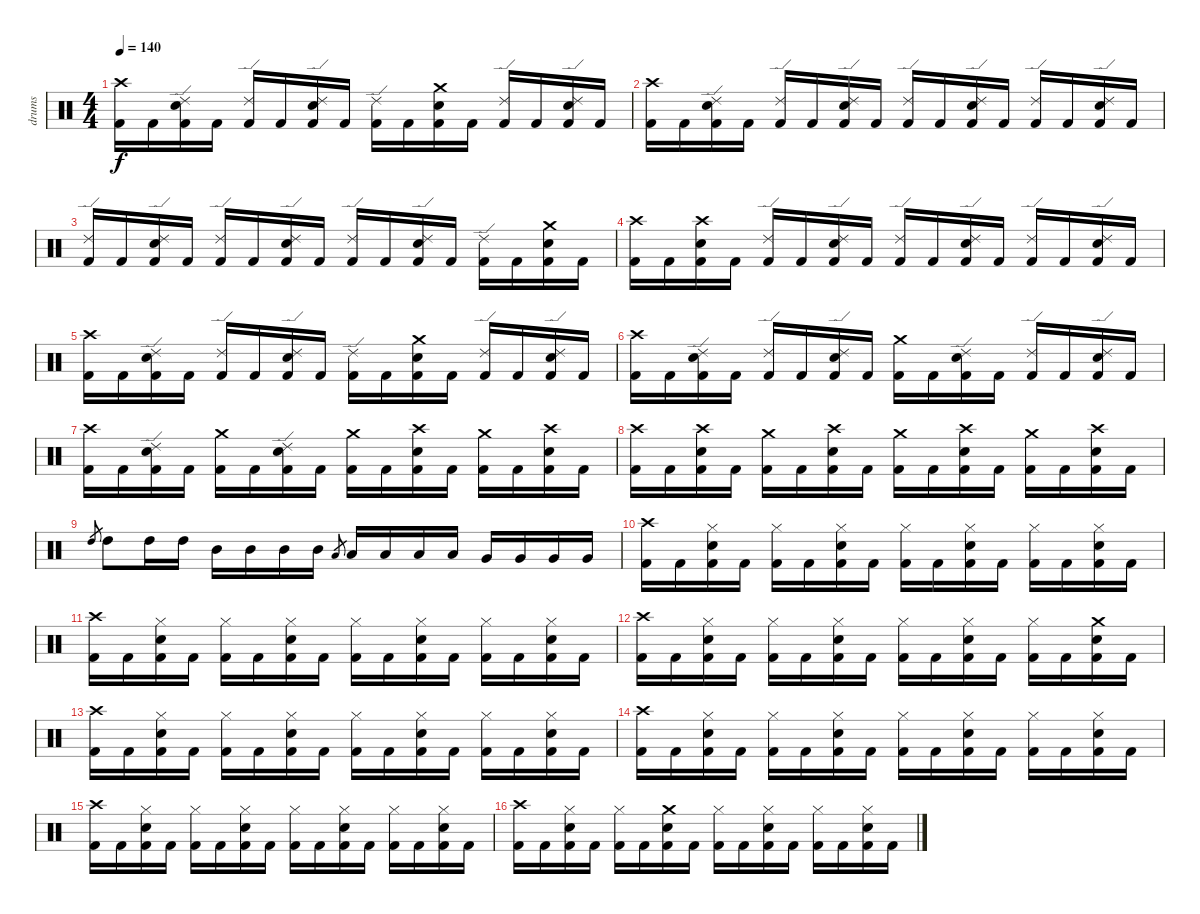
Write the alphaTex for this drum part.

\track ("drums" "drums") {instrument percussion}
\staff {score}
\articulation defaults
\ts (4 4)
\tempo 140
\clef neutral
\ks c
("Crash high (hit)" "Kick (hit) 2").16{dy f} "Kick (hit) 2".16 ("Ride (edge) 2" "Electric Snare (hit)" "Kick (hit) 2").16 "Kick (hit) 2".16 ("Ride (edge) 2" "Kick (hit) 2").16 "Kick (hit) 2".16 ("Ride (edge) 2" "Electric Snare (hit)" "Kick (hit) 2").16 "Kick (hit) 2".16 ("Ride (edge) 2" "Kick (hit) 2").16 "Kick (hit) 2".16 ("Crash medium (hit)" "Electric Snare (hit)" "Kick (hit) 2").16 "Kick (hit) 2".16 ("Ride (edge) 2" "Kick (hit) 2").16 "Kick (hit) 2".16 ("Ride (edge) 2" "Electric Snare (hit)" "Kick (hit) 2").16 "Kick (hit) 2".16 |
("Crash high (hit)" "Kick (hit) 2").16 "Kick (hit) 2".16 ("Ride (edge) 2" "Electric Snare (hit)" "Kick (hit) 2").16 "Kick (hit) 2".16 ("Ride (edge) 2" "Kick (hit) 2").16 "Kick (hit) 2".16 ("Ride (edge) 2" "Electric Snare (hit)" "Kick (hit) 2").16 "Kick (hit) 2".16 ("Ride (edge) 2" "Kick (hit) 2").16 "Kick (hit) 2".16 ("Ride (edge) 2" "Electric Snare (hit)" "Kick (hit) 2").16 "Kick (hit) 2".16 ("Ride (edge) 2" "Kick (hit) 2").16 "Kick (hit) 2".16 ("Ride (edge) 2" "Electric Snare (hit)" "Kick (hit) 2").16 "Kick (hit) 2".16 |
("Ride (edge) 2" "Kick (hit) 2").16 "Kick (hit) 2".16 ("Ride (edge) 2" "Electric Snare (hit)" "Kick (hit) 2").16 "Kick (hit) 2".16 ("Ride (edge) 2" "Kick (hit) 2").16 "Kick (hit) 2".16 ("Ride (edge) 2" "Electric Snare (hit)" "Kick (hit) 2").16 "Kick (hit) 2".16 ("Ride (edge) 2" "Kick (hit) 2").16 "Kick (hit) 2".16 ("Ride (edge) 2" "Electric Snare (hit)" "Kick (hit) 2").16 "Kick (hit) 2".16 ("Ride (edge) 2" "Kick (hit) 2").16 "Kick (hit) 2".16 ("Crash medium (hit)" "Electric Snare (hit)" "Kick (hit) 2").16 "Kick (hit) 2".16 |
("Crash high (hit)" "Kick (hit) 2").16 "Kick (hit) 2".16 ("Crash high (hit)" "Electric Snare (hit)" "Kick (hit) 2").16 "Kick (hit) 2".16 ("Ride (edge) 2" "Kick (hit) 2").16 "Kick (hit) 2".16 ("Ride (edge) 2" "Electric Snare (hit)" "Kick (hit) 2").16 "Kick (hit) 2".16 ("Ride (edge) 2" "Kick (hit) 2").16 "Kick (hit) 2".16 ("Ride (edge) 2" "Electric Snare (hit)" "Kick (hit) 2").16 "Kick (hit) 2".16 ("Ride (edge) 2" "Kick (hit) 2").16 "Kick (hit) 2".16 ("Ride (edge) 2" "Electric Snare (hit)" "Kick (hit) 2").16 "Kick (hit) 2".16 |
("Crash high (hit)" "Kick (hit) 2").16 "Kick (hit) 2".16 ("Ride (edge) 2" "Electric Snare (hit)" "Kick (hit) 2").16 "Kick (hit) 2".16 ("Ride (edge) 2" "Kick (hit) 2").16 "Kick (hit) 2".16 ("Ride (edge) 2" "Electric Snare (hit)" "Kick (hit) 2").16 "Kick (hit) 2".16 ("Ride (edge) 2" "Kick (hit) 2").16 "Kick (hit) 2".16 ("Crash medium (hit)" "Electric Snare (hit)" "Kick (hit) 2").16 "Kick (hit) 2".16 ("Ride (edge) 2" "Kick (hit) 2").16 "Kick (hit) 2".16 ("Ride (edge) 2" "Electric Snare (hit)" "Kick (hit) 2").16 "Kick (hit) 2".16 |
("Crash high (hit)" "Kick (hit) 2").16 "Kick (hit) 2".16 ("Ride (edge) 2" "Electric Snare (hit)" "Kick (hit) 2").16 "Kick (hit) 2".16 ("Ride (edge) 2" "Kick (hit) 2").16 "Kick (hit) 2".16 ("Ride (edge) 2" "Electric Snare (hit)" "Kick (hit) 2").16 "Kick (hit) 2".16 ("Crash medium (hit)" "Kick (hit) 2").16 "Kick (hit) 2".16 ("Ride (edge) 2" "Electric Snare (hit)" "Kick (hit) 2").16 "Kick (hit) 2".16 ("Ride (edge) 2" "Kick (hit) 2").16 "Kick (hit) 2".16 ("Ride (edge) 2" "Electric Snare (hit)" "Kick (hit) 2").16 "Kick (hit) 2".16 |
("Crash high (hit)" "Kick (hit) 2").16 "Kick (hit) 2".16 ("Ride (edge) 2" "Electric Snare (hit)" "Kick (hit) 2").16 "Kick (hit) 2".16 ("Crash medium (hit)" "Kick (hit) 2").16 "Kick (hit) 2".16 ("Ride (edge) 2" "Electric Snare (hit)" "Kick (hit) 2").16 "Kick (hit) 2".16 ("Crash medium (hit)" "Kick (hit) 2").16 "Kick (hit) 2".16 ("Crash high (hit)" "Electric Snare (hit)" "Kick (hit) 2").16 "Kick (hit) 2".16 ("Crash medium (hit)" "Kick (hit) 2").16 "Kick (hit) 2".16 ("Crash high (hit)" "Electric Snare (hit)" "Kick (hit) 2").16 "Kick (hit) 2".16 |
("Crash high (hit)" "Kick (hit) 2").16 "Kick (hit) 2".16 ("Crash high (hit)" "Electric Snare (hit)" "Kick (hit) 2").16 "Kick (hit) 2".16 ("Crash medium (hit)" "Kick (hit) 2").16 "Kick (hit) 2".16 ("Crash high (hit)" "Electric Snare (hit)" "Kick (hit) 2").16 "Kick (hit) 2".16 ("Crash medium (hit)" "Kick (hit) 2").16 "Kick (hit) 2".16 ("Crash high (hit)" "Electric Snare (hit)" "Kick (hit) 2").16 "Kick (hit) 2".16 ("Crash medium (hit)" "Kick (hit) 2").16 "Kick (hit) 2".16 ("Crash high (hit)" "Electric Snare (hit)" "Kick (hit) 2").16 "Kick (hit) 2".16 |
"High Tom (hit)".8{gr} "High Tom (hit)".8 "High Tom (hit)".16 "High Tom (hit)".16 "Mid Tom (hit)".16 "Mid Tom (hit)".16 "Mid Tom (hit)".16 "Mid Tom (hit)".16 "Low Tom (hit)".8{gr} "Low Tom (hit)".16 "Low Tom (hit)".16 "Low Tom (hit)".16 "Low Tom (hit)".16 "Very Low Tom (hit)".16 "Very Low Tom (hit)".16 "Very Low Tom (hit)".16 "Very Low Tom (hit)".16 |
("Crash high (hit)" "Kick (hit) 2").16 "Kick (hit) 2".16 ("Hi-Hat (closed)" "Electric Snare (hit)" "Kick (hit) 2").16 "Kick (hit) 2".16 ("Hi-Hat (closed)" "Kick (hit) 2").16 "Kick (hit) 2".16 ("Hi-Hat (closed)" "Electric Snare (hit)" "Kick (hit) 2").16 "Kick (hit) 2".16 ("Hi-Hat (closed)" "Kick (hit) 2").16 "Kick (hit) 2".16 ("Hi-Hat (closed)" "Electric Snare (hit)" "Kick (hit) 2").16 "Kick (hit) 2".16 ("Hi-Hat (closed)" "Kick (hit) 2").16 "Kick (hit) 2".16 ("Hi-Hat (closed)" "Electric Snare (hit)" "Kick (hit) 2").16 "Kick (hit) 2".16 |
("Crash high (hit)" "Kick (hit) 2").16 "Kick (hit) 2".16 ("Hi-Hat (closed)" "Electric Snare (hit)" "Kick (hit) 2").16 "Kick (hit) 2".16 ("Hi-Hat (closed)" "Kick (hit) 2").16 "Kick (hit) 2".16 ("Hi-Hat (closed)" "Electric Snare (hit)" "Kick (hit) 2").16 "Kick (hit) 2".16 ("Hi-Hat (closed)" "Kick (hit) 2").16 "Kick (hit) 2".16 ("Hi-Hat (closed)" "Electric Snare (hit)" "Kick (hit) 2").16 "Kick (hit) 2".16 ("Hi-Hat (closed)" "Kick (hit) 2").16 "Kick (hit) 2".16 ("Hi-Hat (closed)" "Electric Snare (hit)" "Kick (hit) 2").16 "Kick (hit) 2".16 |
("Crash high (hit)" "Kick (hit) 2").16 "Kick (hit) 2".16 ("Hi-Hat (closed)" "Electric Snare (hit)" "Kick (hit) 2").16 "Kick (hit) 2".16 ("Hi-Hat (closed)" "Kick (hit) 2").16 "Kick (hit) 2".16 ("Hi-Hat (closed)" "Electric Snare (hit)" "Kick (hit) 2").16 "Kick (hit) 2".16 ("Hi-Hat (closed)" "Kick (hit) 2").16 "Kick (hit) 2".16 ("Hi-Hat (closed)" "Electric Snare (hit)" "Kick (hit) 2").16 "Kick (hit) 2".16 ("Hi-Hat (closed)" "Kick (hit) 2").16 "Kick (hit) 2".16 ("Crash medium (hit)" "Electric Snare (hit)" "Kick (hit) 2").16 "Kick (hit) 2".16 |
("Crash high (hit)" "Kick (hit) 2").16 "Kick (hit) 2".16 ("Hi-Hat (closed)" "Electric Snare (hit)" "Kick (hit) 2").16 "Kick (hit) 2".16 ("Hi-Hat (closed)" "Kick (hit) 2").16 "Kick (hit) 2".16 ("Hi-Hat (closed)" "Electric Snare (hit)" "Kick (hit) 2").16 "Kick (hit) 2".16 ("Hi-Hat (closed)" "Kick (hit) 2").16 "Kick (hit) 2".16 ("Hi-Hat (closed)" "Electric Snare (hit)" "Kick (hit) 2").16 "Kick (hit) 2".16 ("Hi-Hat (closed)" "Kick (hit) 2").16 "Kick (hit) 2".16 ("Hi-Hat (closed)" "Electric Snare (hit)" "Kick (hit) 2").16 "Kick (hit) 2".16 |
("Crash high (hit)" "Kick (hit) 2").16 "Kick (hit) 2".16 ("Hi-Hat (closed)" "Electric Snare (hit)" "Kick (hit) 2").16 "Kick (hit) 2".16 ("Hi-Hat (closed)" "Kick (hit) 2").16 "Kick (hit) 2".16 ("Hi-Hat (closed)" "Electric Snare (hit)" "Kick (hit) 2").16 "Kick (hit) 2".16 ("Hi-Hat (closed)" "Kick (hit) 2").16 "Kick (hit) 2".16 ("Hi-Hat (closed)" "Electric Snare (hit)" "Kick (hit) 2").16 "Kick (hit) 2".16 ("Hi-Hat (closed)" "Kick (hit) 2").16 "Kick (hit) 2".16 ("Hi-Hat (closed)" "Electric Snare (hit)" "Kick (hit) 2").16 "Kick (hit) 2".16 |
("Crash high (hit)" "Kick (hit) 2").16 "Kick (hit) 2".16 ("Hi-Hat (closed)" "Electric Snare (hit)" "Kick (hit) 2").16 "Kick (hit) 2".16 ("Hi-Hat (closed)" "Kick (hit) 2").16 "Kick (hit) 2".16 ("Hi-Hat (closed)" "Electric Snare (hit)" "Kick (hit) 2").16 "Kick (hit) 2".16 ("Hi-Hat (closed)" "Kick (hit) 2").16 "Kick (hit) 2".16 ("Hi-Hat (closed)" "Electric Snare (hit)" "Kick (hit) 2").16 "Kick (hit) 2".16 ("Hi-Hat (closed)" "Kick (hit) 2").16 "Kick (hit) 2".16 ("Hi-Hat (closed)" "Electric Snare (hit)" "Kick (hit) 2").16 "Kick (hit) 2".16 |
("Crash high (hit)" "Kick (hit) 2").16 "Kick (hit) 2".16 ("Hi-Hat (closed)" "Electric Snare (hit)" "Kick (hit) 2").16 "Kick (hit) 2".16 ("Hi-Hat (closed)" "Kick (hit) 2").16 "Kick (hit) 2".16 ("Crash medium (hit)" "Electric Snare (hit)" "Kick (hit) 2").16 "Kick (hit) 2".16 ("Hi-Hat (closed)" "Kick (hit) 2").16 "Kick (hit) 2".16 ("Hi-Hat (closed)" "Electric Snare (hit)" "Kick (hit) 2").16 "Kick (hit) 2".16 ("Hi-Hat (closed)" "Kick (hit) 2").16 "Kick (hit) 2".16 ("Hi-Hat (closed)" "Electric Snare (hit)" "Kick (hit) 2").16 "Kick (hit) 2".16
